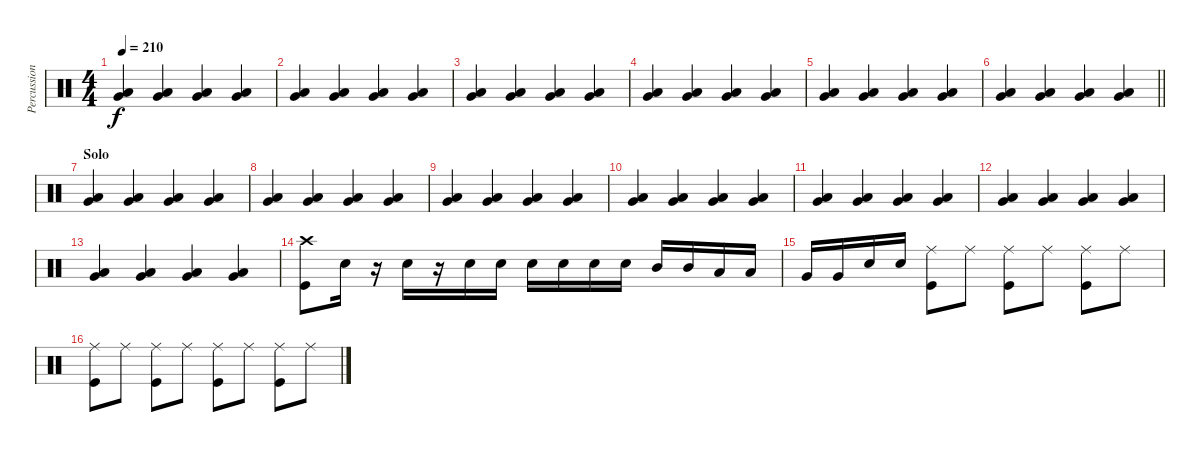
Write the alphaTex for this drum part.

\track ("Percussion" "Percussion") {instrument percussion}
\staff {score}
\articulation defaults
\ts (4 4)
\tempo 210
\clef neutral
\ks c
("Very Low Tom (hit)" "Low Floor Tom (hit)").4{dy f} ("Very Low Tom (hit)" "Low Floor Tom (hit)").4 ("Very Low Tom (hit)" "Low Floor Tom (hit)").4 ("Very Low Tom (hit)" "Low Floor Tom (hit)").4 |
("Very Low Tom (hit)" "Low Floor Tom (hit)").4 ("Very Low Tom (hit)" "Low Floor Tom (hit)").4 ("Very Low Tom (hit)" "Low Floor Tom (hit)").4 ("Very Low Tom (hit)" "Low Floor Tom (hit)").4 |
("Very Low Tom (hit)" "Low Floor Tom (hit)").4 ("Very Low Tom (hit)" "Low Floor Tom (hit)").4 ("Very Low Tom (hit)" "Low Floor Tom (hit)").4 ("Very Low Tom (hit)" "Low Floor Tom (hit)").4 |
("Very Low Tom (hit)" "Low Floor Tom (hit)").4 ("Very Low Tom (hit)" "Low Floor Tom (hit)").4 ("Very Low Tom (hit)" "Low Floor Tom (hit)").4 ("Very Low Tom (hit)" "Low Floor Tom (hit)").4 |
("Very Low Tom (hit)" "Low Floor Tom (hit)").4 ("Very Low Tom (hit)" "Low Floor Tom (hit)").4 ("Very Low Tom (hit)" "Low Floor Tom (hit)").4 ("Very Low Tom (hit)" "Low Floor Tom (hit)").4 |
\barLineRight lightlight
("Very Low Tom (hit)" "Low Floor Tom (hit)").4 ("Very Low Tom (hit)" "Low Floor Tom (hit)").4 ("Very Low Tom (hit)" "Low Floor Tom (hit)").4 ("Very Low Tom (hit)" "Low Floor Tom (hit)").4 |
\section ("" "Solo")
("Very Low Tom (hit)" "Low Floor Tom (hit)").4 ("Very Low Tom (hit)" "Low Floor Tom (hit)").4 ("Very Low Tom (hit)" "Low Floor Tom (hit)").4 ("Very Low Tom (hit)" "Low Floor Tom (hit)").4 |
("Very Low Tom (hit)" "Low Floor Tom (hit)").4 ("Very Low Tom (hit)" "Low Floor Tom (hit)").4 ("Very Low Tom (hit)" "Low Floor Tom (hit)").4 ("Very Low Tom (hit)" "Low Floor Tom (hit)").4 |
("Very Low Tom (hit)" "Low Floor Tom (hit)").4 ("Very Low Tom (hit)" "Low Floor Tom (hit)").4 ("Very Low Tom (hit)" "Low Floor Tom (hit)").4 ("Very Low Tom (hit)" "Low Floor Tom (hit)").4 |
("Very Low Tom (hit)" "Low Floor Tom (hit)").4 ("Very Low Tom (hit)" "Low Floor Tom (hit)").4 ("Very Low Tom (hit)" "Low Floor Tom (hit)").4 ("Very Low Tom (hit)" "Low Floor Tom (hit)").4 |
("Very Low Tom (hit)" "Low Floor Tom (hit)").4 ("Very Low Tom (hit)" "Low Floor Tom (hit)").4 ("Very Low Tom (hit)" "Low Floor Tom (hit)").4 ("Very Low Tom (hit)" "Low Floor Tom (hit)").4 |
("Very Low Tom (hit)" "Low Floor Tom (hit)").4 ("Very Low Tom (hit)" "Low Floor Tom (hit)").4 ("Very Low Tom (hit)" "Low Floor Tom (hit)").4 ("Very Low Tom (hit)" "Low Floor Tom (hit)").4 |
("Very Low Tom (hit)" "Low Floor Tom (hit)").4 ("Very Low Tom (hit)" "Low Floor Tom (hit)").4 ("Very Low Tom (hit)" "Low Floor Tom (hit)").4 ("Very Low Tom (hit)" "Low Floor Tom (hit)").4 |
("Crash high (hit)" "Kick (hit)").8 "Snare (hit) 2".16 r.16 "Snare (hit) 2".16 r.16 "Snare (hit) 2".16 "Snare (hit) 2".16 "Snare (hit) 2".16 "Snare (hit) 2".16 "Snare (hit) 2".16 "Snare (hit) 2".16 "Mid Tom (hit)".16 "Mid Tom (hit)".16 "Low Tom (hit)".16 "Low Tom (hit)".16 |
"Very Low Tom (hit)".16 "Very Low Tom (hit)".16 "Snare (hit) 2".16 "Snare (hit) 2".16 ("Ride (middle)" "Kick (hit)").8 "Ride (middle)".8 ("Ride (middle)" "Kick (hit)").8 "Ride (middle)".8 ("Ride (middle)" "Kick (hit)").8 "Ride (middle)".8 |
("Ride (middle)" "Kick (hit)").8 "Ride (middle)".8 ("Ride (middle)" "Kick (hit)").8 "Ride (middle)".8 ("Ride (middle)" "Kick (hit)").8 "Ride (middle)".8 ("Ride (middle)" "Kick (hit)").8 "Ride (middle)".8
